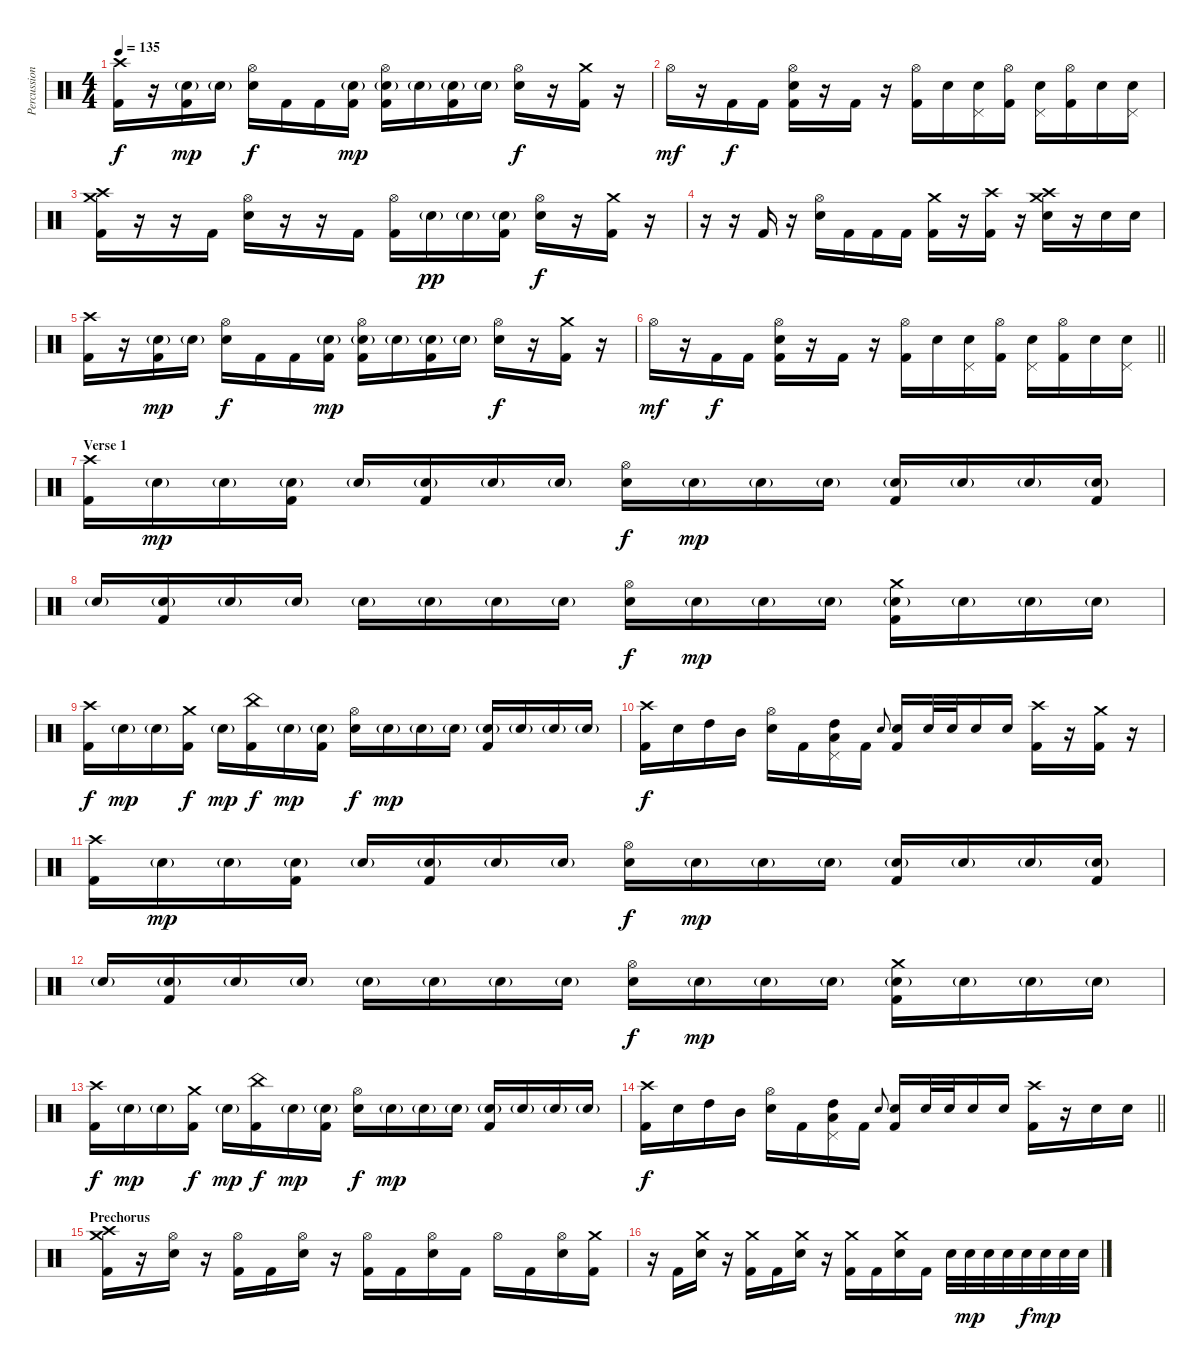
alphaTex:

\track ("Percussion" "Percussion") {instrument percussion}
\staff {score}
\articulation defaults
\ts (4 4)
\tempo 135
\clef neutral
\ks c
("Crash high (hit)" "Kick (hit) 2").16{dy f} r.16 ("Electric Snare (hit)"{g} "Kick (hit) 2").16{dy mp} "Electric Snare (hit)"{g}.16 ("Hi-Hat (open)" "Electric Snare (hit)").16{dy f} "Kick (hit) 2".16 "Kick (hit) 2".16 ("Electric Snare (hit)"{g} "Kick (hit) 2").16{dy mp} ("Hi-Hat (open)" "Electric Snare (hit)"{g} "Kick (hit) 2").16 "Electric Snare (hit)"{g}.16 ("Electric Snare (hit)"{g} "Kick (hit) 2").16 "Electric Snare (hit)"{g}.16 ("Hi-Hat (open)" "Electric Snare (hit)").16{dy f} r.16 ("Crash medium (hit)" "Kick (hit) 2").16 r.16 |
"Hi-Hat (open)".16{dy mf} r.16 "Kick (hit) 2".16{dy f} "Kick (hit) 2".16 ("Hi-Hat (open)" "Electric Snare (hit)" "Kick (hit) 2").16 r.16 "Kick (hit) 2".16 r.16 ("Hi-Hat (open)" "Kick (hit) 2").16 "Electric Snare (hit)".16 ("Pedal Hi-Hat (hit)" "Electric Snare (hit)").16 ("Hi-Hat (open)" "Kick (hit) 2").16 ("Pedal Hi-Hat (hit)" "Electric Snare (hit)").16 ("Hi-Hat (open)" "Kick (hit) 2").16 "Electric Snare (hit)".16 ("Pedal Hi-Hat (hit)" "Electric Snare (hit)").16 |
("Crash high (hit)" "Crash medium (hit)" "Kick (hit) 2").16 r.16 r.16 "Kick (hit) 2".16 ("Hi-Hat (open)" "Electric Snare (hit)").16 r.16 r.16 "Kick (hit) 2".16 ("Hi-Hat (open)" "Kick (hit) 2").16 "Electric Snare (hit)"{g}.16{dy pp} "Electric Snare (hit)"{g}.16 ("Electric Snare (hit)"{g} "Kick (hit) 2").16 ("Hi-Hat (open)" "Electric Snare (hit)").16{dy f} r.16 ("Crash medium (hit)" "Kick (hit) 2").16 r.16 |
r.16 r.16 "Kick (hit) 2".16 r.16 ("Hi-Hat (open)" "Electric Snare (hit)").16 "Kick (hit) 2".16 "Kick (hit) 2".16 "Kick (hit) 2".16 ("Crash medium (hit)" "Kick (hit) 2").16 r.16 ("Crash high (hit)" "Kick (hit) 2").16 r.16 ("Crash high (hit)" "Crash medium (hit)" "Electric Snare (hit)").16 r.16 "Electric Snare (hit)".16 "Electric Snare (hit)".16 |
("Crash high (hit)" "Kick (hit) 2").16 r.16 ("Electric Snare (hit)"{g} "Kick (hit) 2").16{dy mp} "Electric Snare (hit)"{g}.16 ("Hi-Hat (open)" "Electric Snare (hit)").16{dy f} "Kick (hit) 2".16 "Kick (hit) 2".16 ("Electric Snare (hit)"{g} "Kick (hit) 2").16{dy mp} ("Hi-Hat (open)" "Electric Snare (hit)"{g} "Kick (hit) 2").16 "Electric Snare (hit)"{g}.16 ("Electric Snare (hit)"{g} "Kick (hit) 2").16 "Electric Snare (hit)"{g}.16 ("Hi-Hat (open)" "Electric Snare (hit)").16{dy f} r.16 ("Crash medium (hit)" "Kick (hit) 2").16 r.16 |
\barLineRight lightlight "Hi-Hat (open)".16{dy mf}
r.16 "Kick (hit) 2".16{dy f} "Kick (hit) 2".16 ("Hi-Hat (open)" "Electric Snare (hit)" "Kick (hit) 2").16 r.16 "Kick (hit) 2".16 r.16 ("Hi-Hat (open)" "Kick (hit) 2").16 "Electric Snare (hit)".16 ("Pedal Hi-Hat (hit)" "Electric Snare (hit)").16 ("Hi-Hat (open)" "Kick (hit) 2").16 ("Pedal Hi-Hat (hit)" "Electric Snare (hit)").16 ("Hi-Hat (open)" "Kick (hit) 2").16 "Electric Snare (hit)".16 ("Pedal Hi-Hat (hit)" "Electric Snare (hit)").16 |
\section ("" "Verse 1")
("Crash high (hit)" "Kick (hit) 2").16 "Electric Snare (hit)"{g}.16{dy mp} "Electric Snare (hit)"{g}.16 ("Electric Snare (hit)"{g} "Kick (hit) 2").16 "Electric Snare (hit)"{g}.16 ("Electric Snare (hit)"{g} "Kick (hit) 2").16 "Electric Snare (hit)"{g}.16 "Electric Snare (hit)"{g}.16 ("Hi-Hat (open)" "Electric Snare (hit)").16{dy f} "Electric Snare (hit)"{g}.16{dy mp} "Electric Snare (hit)"{g}.16 "Electric Snare (hit)"{g}.16 ("Electric Snare (hit)"{g} "Kick (hit) 2").16 "Electric Snare (hit)"{g}.16 "Electric Snare (hit)"{g}.16 ("Electric Snare (hit)"{g} "Kick (hit) 2").16 |
"Electric Snare (hit)"{g}.16 ("Electric Snare (hit)"{g} "Kick (hit) 2").16 "Electric Snare (hit)"{g}.16 "Electric Snare (hit)"{g}.16 "Electric Snare (hit)"{g}.16 "Electric Snare (hit)"{g}.16 "Electric Snare (hit)"{g}.16 "Electric Snare (hit)"{g}.16 ("Hi-Hat (open)" "Electric Snare (hit)").16{dy f} "Electric Snare (hit)"{g}.16{dy mp} "Electric Snare (hit)"{g}.16 "Electric Snare (hit)"{g}.16 ("Crash medium (hit)" "Electric Snare (hit)"{g} "Kick (hit) 2").16 "Electric Snare (hit)"{g}.16 "Electric Snare (hit)"{g}.16 "Electric Snare (hit)"{g}.16 |
("Crash high (hit)" "Kick (hit) 2").16{dy f} "Electric Snare (hit)"{g}.16{dy mp} "Electric Snare (hit)"{g}.16 ("Crash medium (hit)" "Kick (hit) 2").16{dy f} "Electric Snare (hit)"{g}.16{dy mp} ("China (hit)" "Kick (hit) 2").16{dy f} "Electric Snare (hit)"{g}.16{dy mp} ("Electric Snare (hit)"{g} "Kick (hit) 2").16 ("Hi-Hat (open)" "Electric Snare (hit)").16{dy f} "Electric Snare (hit)"{g}.16{dy mp} "Electric Snare (hit)"{g}.16 "Electric Snare (hit)"{g}.16 ("Electric Snare (hit)"{g} "Kick (hit) 2").16 "Electric Snare (hit)"{g}.16 "Electric Snare (hit)"{g}.16 "Electric Snare (hit)"{g}.16 |
("Crash high (hit)" "Kick (hit) 2").16{dy f} "Electric Snare (hit)".16 "High Tom (hit)".16 "Mid Tom (hit)".16 ("Hi-Hat (open)" "Electric Snare (hit)").16 "Kick (hit) 2".16 ("Pedal Hi-Hat (hit)" "High Tom (hit)" "Low Tom (hit)").16 "Kick (hit) 2".16 "Electric Snare (hit)".8{gr onbeat} ("Electric Snare (hit)" "Kick (hit) 2").16 "Electric Snare (hit)".32 "Electric Snare (hit)".32 "Electric Snare (hit)".16 "Electric Snare (hit)".16 ("Crash high (hit)" "Kick (hit) 2").16 r.16 ("Crash medium (hit)" "Kick (hit) 2").16 r.16 |
("Crash high (hit)" "Kick (hit) 2").16 "Electric Snare (hit)"{g}.16{dy mp} "Electric Snare (hit)"{g}.16 ("Electric Snare (hit)"{g} "Kick (hit) 2").16 "Electric Snare (hit)"{g}.16 ("Electric Snare (hit)"{g} "Kick (hit) 2").16 "Electric Snare (hit)"{g}.16 "Electric Snare (hit)"{g}.16 ("Hi-Hat (open)" "Electric Snare (hit)").16{dy f} "Electric Snare (hit)"{g}.16{dy mp} "Electric Snare (hit)"{g}.16 "Electric Snare (hit)"{g}.16 ("Electric Snare (hit)"{g} "Kick (hit) 2").16 "Electric Snare (hit)"{g}.16 "Electric Snare (hit)"{g}.16 ("Electric Snare (hit)"{g} "Kick (hit) 2").16 |
"Electric Snare (hit)"{g}.16 ("Electric Snare (hit)"{g} "Kick (hit) 2").16 "Electric Snare (hit)"{g}.16 "Electric Snare (hit)"{g}.16 "Electric Snare (hit)"{g}.16 "Electric Snare (hit)"{g}.16 "Electric Snare (hit)"{g}.16 "Electric Snare (hit)"{g}.16 ("Hi-Hat (open)" "Electric Snare (hit)").16{dy f} "Electric Snare (hit)"{g}.16{dy mp} "Electric Snare (hit)"{g}.16 "Electric Snare (hit)"{g}.16 ("Crash medium (hit)" "Electric Snare (hit)"{g} "Kick (hit) 2").16 "Electric Snare (hit)"{g}.16 "Electric Snare (hit)"{g}.16 "Electric Snare (hit)"{g}.16 |
("Crash high (hit)" "Kick (hit) 2").16{dy f} "Electric Snare (hit)"{g}.16{dy mp} "Electric Snare (hit)"{g}.16 ("Crash medium (hit)" "Kick (hit) 2").16{dy f} "Electric Snare (hit)"{g}.16{dy mp} ("China (hit)" "Kick (hit) 2").16{dy f} "Electric Snare (hit)"{g}.16{dy mp} ("Electric Snare (hit)"{g} "Kick (hit) 2").16 ("Hi-Hat (open)" "Electric Snare (hit)").16{dy f} "Electric Snare (hit)"{g}.16{dy mp} "Electric Snare (hit)"{g}.16 "Electric Snare (hit)"{g}.16 ("Electric Snare (hit)"{g} "Kick (hit) 2").16 "Electric Snare (hit)"{g}.16 "Electric Snare (hit)"{g}.16 "Electric Snare (hit)"{g}.16 |
\barLineRight lightlight
("Crash high (hit)" "Kick (hit) 2").16{dy f} "Electric Snare (hit)".16 "High Tom (hit)".16 "Mid Tom (hit)".16 ("Hi-Hat (open)" "Electric Snare (hit)").16 "Kick (hit) 2".16 ("Pedal Hi-Hat (hit)" "High Tom (hit)" "Low Tom (hit)").16 "Kick (hit) 2".16 "Electric Snare (hit)".8{gr onbeat} ("Electric Snare (hit)" "Kick (hit) 2").16 "Electric Snare (hit)".32 "Electric Snare (hit)".32 "Electric Snare (hit)".16 "Electric Snare (hit)".16 ("Crash high (hit)" "Kick (hit) 2").16 r.16 "Electric Snare (hit)".16 "Electric Snare (hit)".16 |
\section ("" "Prechorus")
("Crash high (hit)" "Crash medium (hit)" "Kick (hit) 2").16 r.16 ("Hi-Hat (open)" "Electric Snare (hit)").16 r.16 ("Hi-Hat (open)" "Kick (hit) 2").16 "Kick (hit) 2".16 ("Hi-Hat (open)" "Electric Snare (hit)").16 r.16 ("Hi-Hat (open)" "Kick (hit) 2").16 "Kick (hit) 2".16 ("Hi-Hat (open)" "Electric Snare (hit)").16 "Kick (hit) 2".16 "Hi-Hat (open)".16 "Kick (hit) 2".16 ("Hi-Hat (open)" "Electric Snare (hit)").16 ("Crash medium (hit)" "Kick (hit) 2").16 |
r.16 "Kick (hit) 2".16 ("Crash medium (hit)" "Electric Snare (hit)").16 r.16 ("Crash medium (hit)" "Kick (hit) 2").16 "Kick (hit) 2".16 ("Crash medium (hit)" "Electric Snare (hit)").16 r.16 ("Crash medium (hit)" "Kick (hit) 2").16 "Kick (hit) 2".16 ("Crash medium (hit)" "Electric Snare (hit)").16 "Kick (hit) 2".16 "Electric Snare (hit)".32 "Electric Snare (hit)".32{dy mp} "Electric Snare (hit)".32 "Electric Snare (hit)".32 "Electric Snare (hit)".32{dy f} "Electric Snare (hit)".32{dy mp} "Electric Snare (hit)".32 "Electric Snare (hit)".32
